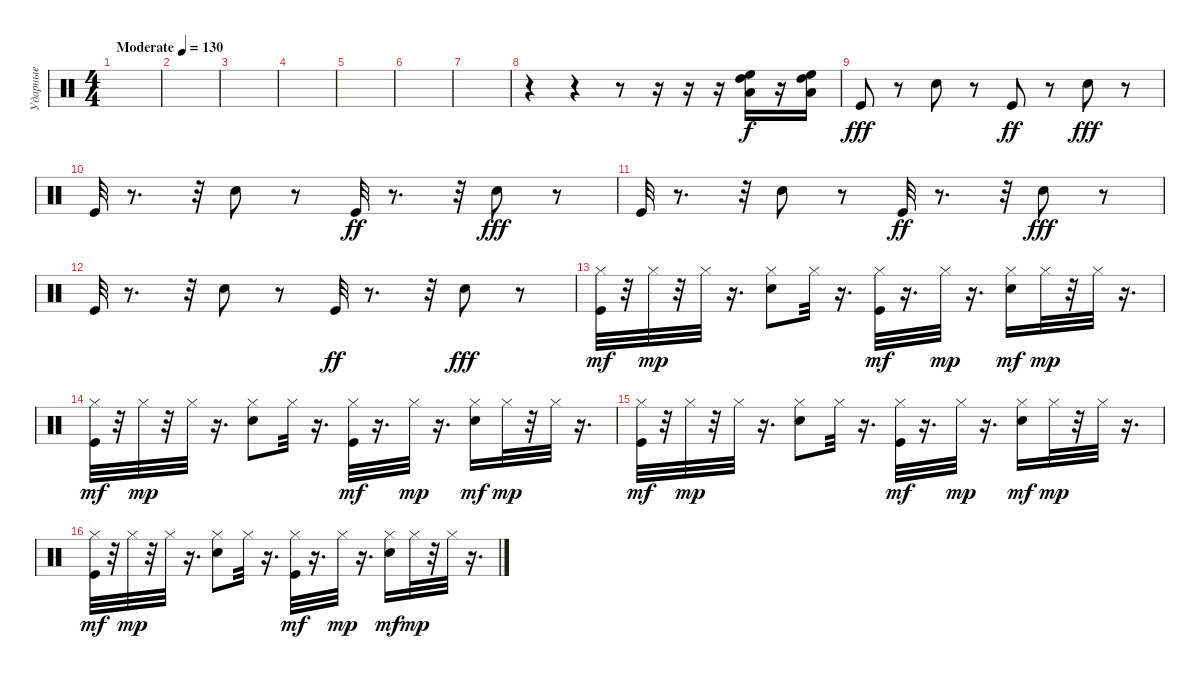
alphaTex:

\track ("Ударные" "Ударные") {instrument percussion}
\staff {score}
\articulation defaults
\ts (4 4)
\tempo (130 "Moderate")
\clef neutral
\ks c
|
|
|
|
|
|
|
r.4 r.4 r.8 r.16 r.16 r.16 ("High Floor Tom (hit)" "High Tom (hit)" "Low Tom (hit)").16 r.16 ("High Floor Tom (hit)" "High Tom (hit)" "Low Tom (hit)").16 |
"Kick (hit)".8{dy fff} r.8 "Snare (hit) 2".8 r.8 "Kick (hit)".8{dy ff} r.8 "Snare (hit) 2".8{dy fff} r.8 |
"Kick (hit)".32 r.8{d} r.32 "Snare (hit) 2".8 r.8 "Kick (hit)".32{dy ff} r.8{d} r.32 "Snare (hit) 2".8{dy fff} r.8 |
"Kick (hit)".32 r.8{d} r.32 "Snare (hit) 2".8 r.8 "Kick (hit)".32{dy ff} r.8{d} r.32 "Snare (hit) 2".8{dy fff} r.8 |
"Kick (hit)".32 r.8{d} r.32 "Snare (hit) 2".8 r.8 "Kick (hit)".32{dy ff} r.8{d} r.32 "Snare (hit) 2".8{dy fff} r.8 |
("Kick (hit)" "Hi-Hat (closed)").32{dy mf} r.32 "Hi-Hat (closed)".32{dy mp} r.32 "Hi-Hat (closed)".32 r.16{d} ("Snare (hit) 2" "Hi-Hat (closed)").8 "Hi-Hat (closed)".32 r.16{d} ("Kick (hit)" "Hi-Hat (closed)").32{dy mf} r.16{d} "Hi-Hat (closed)".32{dy mp} r.16{d} ("Snare (hit) 2" "Hi-Hat (closed)").16{dy mf} "Hi-Hat (closed)".32{dy mp} r.32 "Hi-Hat (closed)".32 r.16{d} |
("Kick (hit)" "Hi-Hat (closed)").32{dy mf} r.32 "Hi-Hat (closed)".32{dy mp} r.32 "Hi-Hat (closed)".32 r.16{d} ("Snare (hit) 2" "Hi-Hat (closed)").8 "Hi-Hat (closed)".32 r.16{d} ("Kick (hit)" "Hi-Hat (closed)").32{dy mf} r.16{d} "Hi-Hat (closed)".32{dy mp} r.16{d} ("Snare (hit) 2" "Hi-Hat (closed)").16{dy mf} "Hi-Hat (closed)".32{dy mp} r.32 "Hi-Hat (closed)".32 r.16{d} |
("Kick (hit)" "Hi-Hat (closed)").32{dy mf} r.32 "Hi-Hat (closed)".32{dy mp} r.32 "Hi-Hat (closed)".32 r.16{d} ("Snare (hit) 2" "Hi-Hat (closed)").8 "Hi-Hat (closed)".32 r.16{d} ("Kick (hit)" "Hi-Hat (closed)").32{dy mf} r.16{d} "Hi-Hat (closed)".32{dy mp} r.16{d} ("Snare (hit) 2" "Hi-Hat (closed)").16{dy mf} "Hi-Hat (closed)".32{dy mp} r.32 "Hi-Hat (closed)".32 r.16{d} |
("Kick (hit)" "Hi-Hat (closed)").32{dy mf} r.32 "Hi-Hat (closed)".32{dy mp} r.32 "Hi-Hat (closed)".32 r.16{d} ("Snare (hit) 2" "Hi-Hat (closed)").8 "Hi-Hat (closed)".32 r.16{d} ("Kick (hit)" "Hi-Hat (closed)").32{dy mf} r.16{d} "Hi-Hat (closed)".32{dy mp} r.16{d} ("Snare (hit) 2" "Hi-Hat (closed)").16{dy mf} "Hi-Hat (closed)".32{dy mp} r.32 "Hi-Hat (closed)".32 r.16{d}
